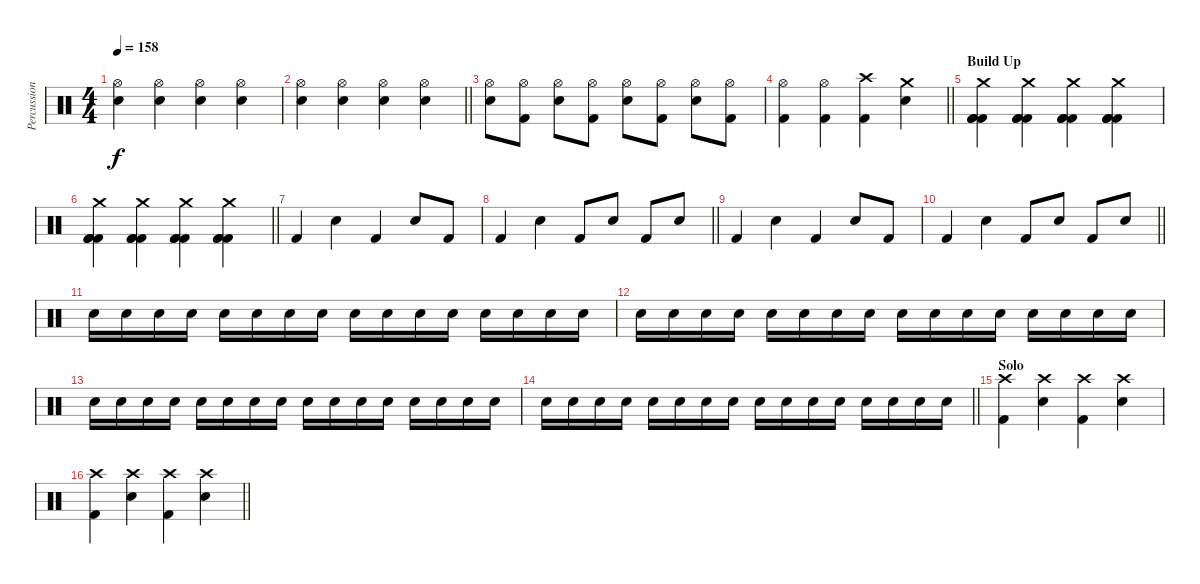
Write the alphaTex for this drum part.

\track ("Percussion" "Percussion") {instrument percussion}
\staff {score}
\articulation defaults
\ts (4 4)
\tempo 158
\clef neutral
\ks c
("Hi-Hat (open)" "Electric Snare (hit)").4{dy f} ("Hi-Hat (open)" "Electric Snare (hit)").4 ("Hi-Hat (open)" "Electric Snare (hit)").4 ("Hi-Hat (open)" "Electric Snare (hit)").4 |
\barLineRight lightlight
("Hi-Hat (open)" "Electric Snare (hit)").4 ("Hi-Hat (open)" "Electric Snare (hit)").4 ("Hi-Hat (open)" "Electric Snare (hit)").4 ("Hi-Hat (open)" "Electric Snare (hit)").4 |
("Hi-Hat (open)" "Electric Snare (hit)").8 ("Hi-Hat (open)" "Kick (hit) 2").8 ("Hi-Hat (open)" "Electric Snare (hit)").8 ("Hi-Hat (open)" "Kick (hit) 2").8 ("Hi-Hat (open)" "Electric Snare (hit)").8 ("Hi-Hat (open)" "Kick (hit) 2").8 ("Hi-Hat (open)" "Electric Snare (hit)").8 ("Hi-Hat (open)" "Kick (hit) 2").8 |
\barLineRight lightlight
("Hi-Hat (open)" "Kick (hit) 2").4 ("Hi-Hat (open)" "Kick (hit) 2").4 ("Crash high (hit)" "Kick (hit) 2").4 ("Crash medium (hit)" "Electric Snare (hit)").4 |
\section ("" "Build Up")
("Crash medium (hit)" "Kick (hit) 2" "Kick (hit) 2" "Kick (hit) 2").4 ("Crash medium (hit)" "Kick (hit) 2" "Kick (hit) 2" "Kick (hit) 2").4 ("Crash medium (hit)" "Kick (hit) 2" "Kick (hit) 2" "Kick (hit) 2").4 ("Crash medium (hit)" "Kick (hit) 2" "Kick (hit) 2" "Kick (hit) 2").4 |
\barLineRight lightlight
("Crash medium (hit)" "Kick (hit) 2" "Kick (hit) 2" "Kick (hit) 2").4 ("Crash medium (hit)" "Kick (hit) 2" "Kick (hit) 2" "Kick (hit) 2").4 ("Crash medium (hit)" "Kick (hit) 2" "Kick (hit) 2" "Kick (hit) 2").4 ("Crash medium (hit)" "Kick (hit) 2" "Kick (hit) 2" "Kick (hit) 2").4 |
"Kick (hit) 2".4 "Electric Snare (hit)".4 "Kick (hit) 2".4 "Electric Snare (hit)".8 "Kick (hit) 2".8 |
\barLineRight lightlight "Kick (hit) 2".4 "Electric Snare (hit)".4 "Kick (hit) 2".8 "Electric Snare (hit)".8 "Kick (hit) 2".8 "Electric Snare (hit)".8
|
"Kick (hit) 2".4 "Electric Snare (hit)".4 "Kick (hit) 2".4 "Electric Snare (hit)".8 "Kick (hit) 2".8 |
\barLineRight lightlight "Kick (hit) 2".4 "Electric Snare (hit)".4 "Kick (hit) 2".8 "Electric Snare (hit)".8 "Kick (hit) 2".8 "Electric Snare (hit)".8
|
"Electric Snare (hit)".16{volume 3} "Electric Snare (hit)".16{volume 16} "Electric Snare (hit)".16 "Electric Snare (hit)".16 "Electric Snare (hit)".16 "Electric Snare (hit)".16 "Electric Snare (hit)".16 "Electric Snare (hit)".16 "Electric Snare (hit)".16 "Electric Snare (hit)".16 "Electric Snare (hit)".16 "Electric Snare (hit)".16 "Electric Snare (hit)".16 "Electric Snare (hit)".16 "Electric Snare (hit)".16 "Electric Snare (hit)".16 |
"Electric Snare (hit)".16 "Electric Snare (hit)".16 "Electric Snare (hit)".16 "Electric Snare (hit)".16 "Electric Snare (hit)".16 "Electric Snare (hit)".16 "Electric Snare (hit)".16 "Electric Snare (hit)".16 "Electric Snare (hit)".16 "Electric Snare (hit)".16 "Electric Snare (hit)".16 "Electric Snare (hit)".16 "Electric Snare (hit)".16 "Electric Snare (hit)".16 "Electric Snare (hit)".16 "Electric Snare (hit)".16 |
"Electric Snare (hit)".16 "Electric Snare (hit)".16 "Electric Snare (hit)".16 "Electric Snare (hit)".16 "Electric Snare (hit)".16 "Electric Snare (hit)".16 "Electric Snare (hit)".16 "Electric Snare (hit)".16 "Electric Snare (hit)".16 "Electric Snare (hit)".16 "Electric Snare (hit)".16 "Electric Snare (hit)".16 "Electric Snare (hit)".16 "Electric Snare (hit)".16 "Electric Snare (hit)".16 "Electric Snare (hit)".16 |
\barLineRight lightlight "Electric Snare (hit)".16 "Electric Snare (hit)".16 "Electric Snare (hit)".16 "Electric Snare (hit)".16 "Electric Snare (hit)".16 "Electric Snare (hit)".16 "Electric Snare (hit)".16 "Electric Snare (hit)".16 "Electric Snare (hit)".16 "Electric Snare (hit)".16 "Electric Snare (hit)".16 "Electric Snare (hit)".16 "Electric Snare (hit)".16 "Electric Snare (hit)".16 "Electric Snare (hit)".16 "Electric Snare (hit)".16
|
\section ("" "Solo")
("Crash high (hit)" "Kick (hit) 2").4 ("Crash high (hit)" "Electric Snare (hit)").4 ("Crash high (hit)" "Kick (hit) 2").4 ("Crash high (hit)" "Electric Snare (hit)").4 |
\barLineRight lightlight
("Crash high (hit)" "Kick (hit) 2").4 ("Crash high (hit)" "Electric Snare (hit)").4 ("Crash high (hit)" "Kick (hit) 2").4 ("Crash high (hit)" "Electric Snare (hit)").4
